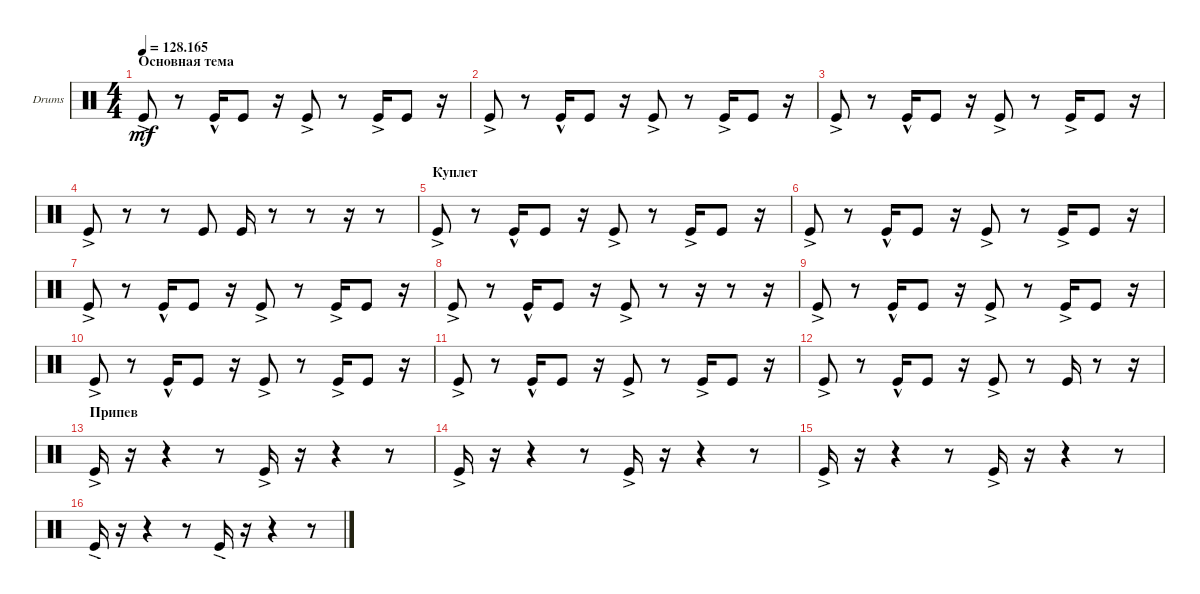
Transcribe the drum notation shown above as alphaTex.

\defaultSystemsLayout 4
\bracketExtendMode groupsimilarinstruments
\firstSystemTrackNameOrientation horizontal
\otherSystemsTrackNameOrientation horizontal
\track ("Drumkit" "Drums") {instrument percussion}
\staff {score}
\articulation defaults
\ts (4 4)
\section ("" "Основная тема")
\tempo
128.165
\accidentals auto
\clef neutral
\ottava regular
\simile none
\ks c "Kick (hit)"{ac}.8{dy mf}
r.8 "Kick (hit)"{hac}.16 "Kick (hit)".8 r.16 "Kick (hit)"{ac}.8 r.8 "Kick (hit)"{ac}.16 "Kick (hit)".8 r.16 |
"Kick (hit)"{ac}.8 r.8 "Kick (hit)"{hac}.16 "Kick (hit)".8 r.16 "Kick (hit)"{ac}.8 r.8 "Kick (hit)"{ac}.16 "Kick (hit)".8 r.16 |
"Kick (hit)"{ac}.8 r.8 "Kick (hit)"{hac}.16 "Kick (hit)".8 r.16 "Kick (hit)"{ac}.8 r.8 "Kick (hit)"{ac}.16 "Kick (hit)".8 r.16 |
"Kick (hit)"{ac}.8 r.8 r.8 "Kick (hit)".8 "Kick (hit)".16 r.8 r.8 r.16 r.8 |
\section ("" "Куплет")
"Kick (hit)"{ac}.8 r.8 "Kick (hit)"{hac}.16 "Kick (hit)".8 r.16 "Kick (hit)"{ac}.8 r.8 "Kick (hit)"{ac}.16 "Kick (hit)".8 r.16 |
"Kick (hit)"{ac}.8 r.8 "Kick (hit)"{hac}.16 "Kick (hit)".8 r.16 "Kick (hit)"{ac}.8 r.8 "Kick (hit)"{ac}.16 "Kick (hit)".8 r.16 |
"Kick (hit)"{ac}.8 r.8 "Kick (hit)"{hac}.16 "Kick (hit)".8 r.16 "Kick (hit)"{ac}.8 r.8 "Kick (hit)"{ac}.16 "Kick (hit)".8 r.16 |
"Kick (hit)"{ac}.8 r.8 "Kick (hit)"{hac}.16 "Kick (hit)".8 r.16 "Kick (hit)"{ac}.8 r.8 r.16 r.8 r.16 |
"Kick (hit)"{ac}.8 r.8 "Kick (hit)"{hac}.16 "Kick (hit)".8 r.16 "Kick (hit)"{ac}.8 r.8 "Kick (hit)"{ac}.16 "Kick (hit)".8 r.16 |
"Kick (hit)"{ac}.8 r.8 "Kick (hit)"{hac}.16 "Kick (hit)".8 r.16 "Kick (hit)"{ac}.8 r.8 "Kick (hit)"{ac}.16 "Kick (hit)".8 r.16 |
"Kick (hit)"{ac}.8 r.8 "Kick (hit)"{hac}.16 "Kick (hit)".8 r.16 "Kick (hit)"{ac}.8 r.8 "Kick (hit)"{ac}.16 "Kick (hit)".8 r.16 |
"Kick (hit)"{ac}.8 r.8 "Kick (hit)"{hac}.16 "Kick (hit)".8 r.16 "Kick (hit)"{ac}.8 r.8 "Kick (hit)".16 r.8 r.16 |
\section ("" "Припев")
"Kick (hit)"{ac}.16 r.16 r.4 r.8 "Kick (hit)"{ac}.16 r.16 r.4 r.8 |
"Kick (hit)"{ac}.16 r.16 r.4 r.8 "Kick (hit)"{ac}.16 r.16 r.4 r.8 |
"Kick (hit)"{ac}.16 r.16 r.4 r.8 "Kick (hit)"{ac}.16 r.16 r.4 r.8 |
"Kick (hit)"{ac}.16 r.16 r.4 r.8 "Kick (hit)"{ac}.16 r.16 r.4 r.8
